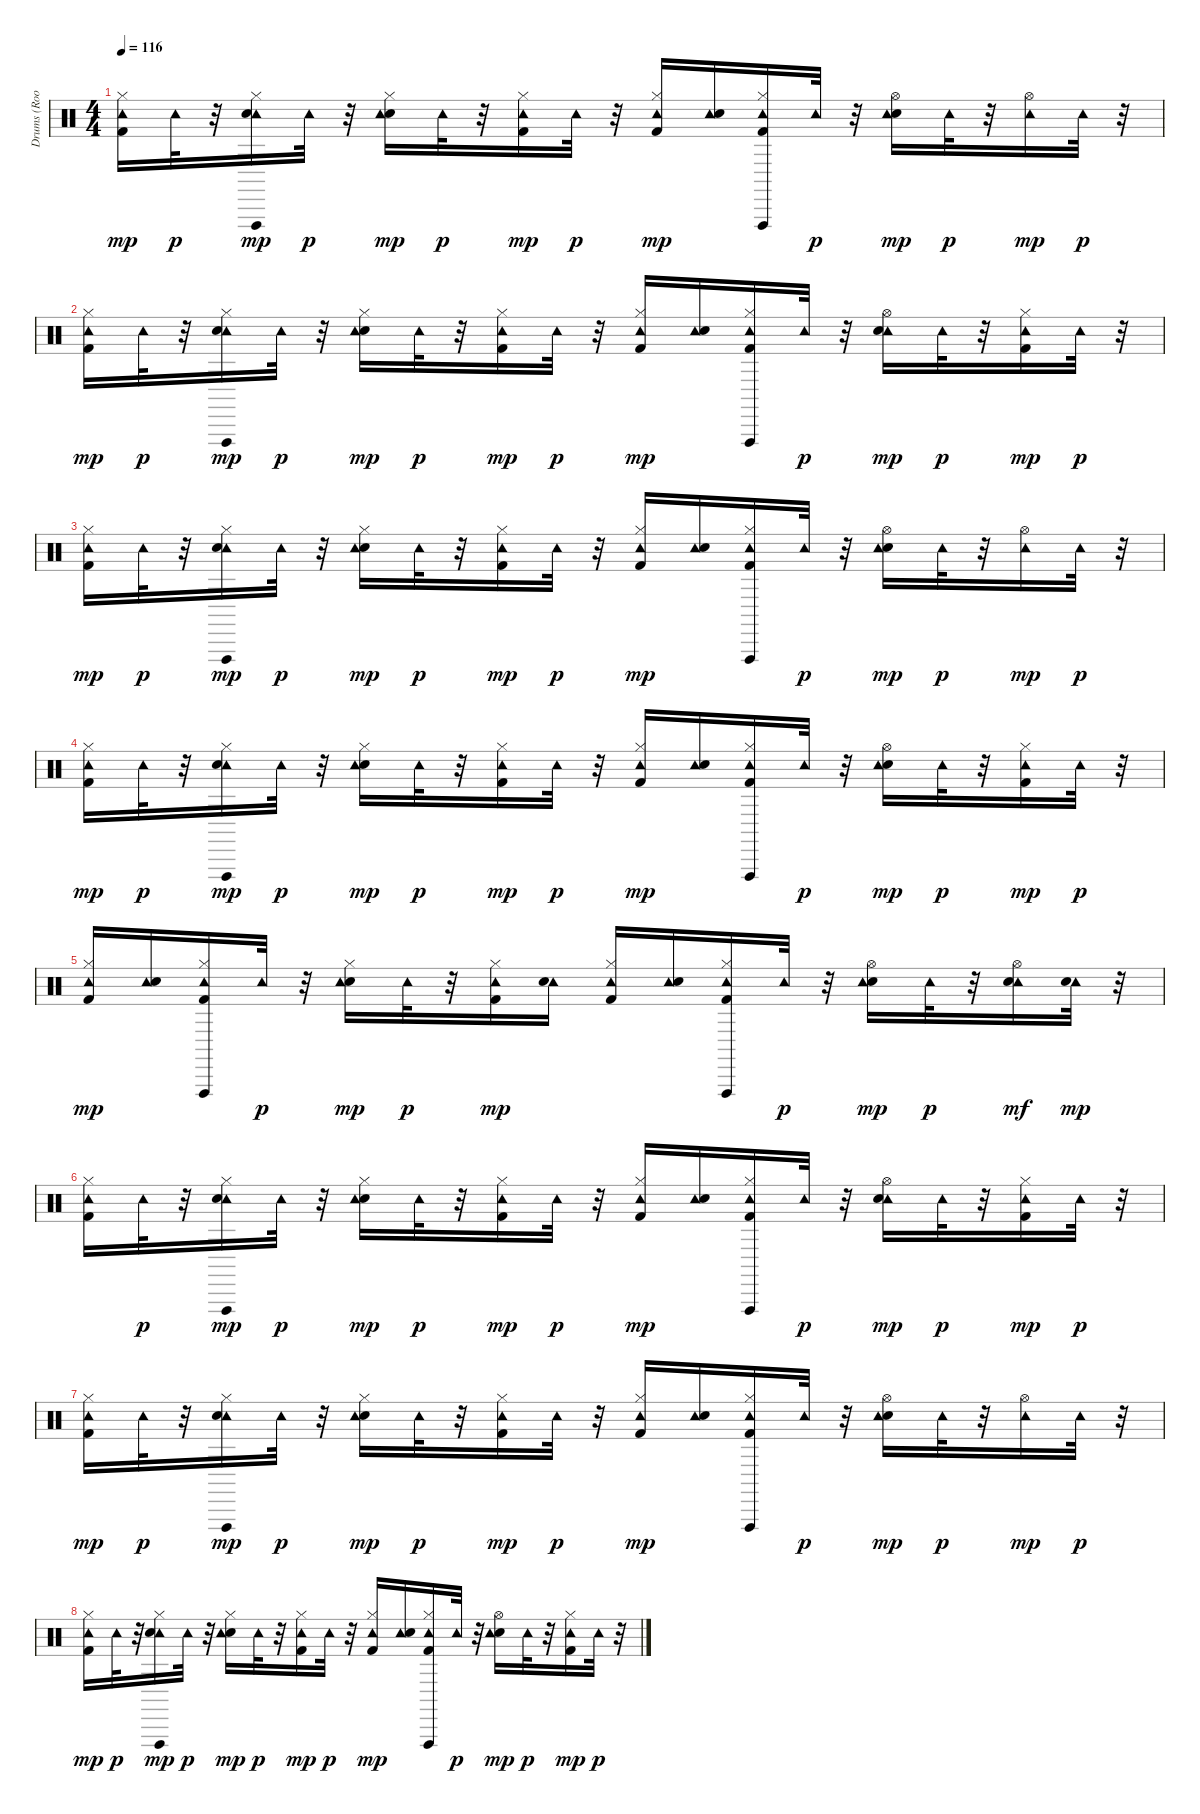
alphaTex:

\track ("Drums (Room Kit)    " "Drums (Roo") {instrument percussion}
\staff {score}
\articulation defaults
\ts (4 4)
\tempo 116
\clef neutral
\ks c
("Hi-Hat (closed)" "Kick (hit) 2" "Tambourine (hit)").16{dy mp} "Tambourine (hit)".32{dy p} r.32 ("Hi-Hat (closed)" "Tambourine (hit)" "Vibraslap (hit)" "Snare (hit) 2").16{dy mp} "Tambourine (hit)".32{dy p} r.32 ("Snare (hit) 2" "Tambourine (hit)" "Hi-Hat (closed)").16{dy mp} "Tambourine (hit)".32{dy p} r.32 ("Kick (hit) 2" "Tambourine (hit)" "Hi-Hat (closed)").16{dy mp} "Tambourine (hit)".32{dy p} r.32 ("Hi-Hat (closed)" "Tambourine (hit)" "Kick (hit) 2").16{dy mp} ("Tambourine (hit)" "Snare (hit) 2").16 ("Kick (hit) 2" "Tambourine (hit)" "Vibraslap (hit)" "Hi-Hat (closed)").16 "Tambourine (hit)".32{dy p} r.32 ("Snare (hit) 2" "Tambourine (hit)" "Hi-Hat (open)").16{dy mp} "Tambourine (hit)".32{dy p} r.32 ("Tambourine (hit)" "Hi-Hat (open)").16{dy mp} "Tambourine (hit)".32{dy p} r.32 |
("Kick (hit) 2" "Hi-Hat (closed)" "Tambourine (hit)").16{dy mp} "Tambourine (hit)".32{dy p} r.32 ("Hi-Hat (closed)" "Tambourine (hit)" "Vibraslap (hit)" "Snare (hit) 2").16{dy mp} "Tambourine (hit)".32{dy p} r.32 ("Snare (hit) 2" "Hi-Hat (closed)" "Tambourine (hit)").16{dy mp} "Tambourine (hit)".32{dy p} r.32 ("Kick (hit) 2" "Tambourine (hit)" "Hi-Hat (closed)").16{dy mp} "Tambourine (hit)".32{dy p} r.32 ("Hi-Hat (closed)" "Tambourine (hit)" "Kick (hit) 2").16{dy mp} ("Tambourine (hit)" "Snare (hit) 2").16 ("Tambourine (hit)" "Vibraslap (hit)" "Hi-Hat (closed)" "Kick (hit) 2").16 "Tambourine (hit)".32{dy p} r.32 ("Tambourine (hit)" "Hi-Hat (open)" "Snare (hit) 2").16{dy mp} "Tambourine (hit)".32{dy p} r.32 ("Hi-Hat (closed)" "Tambourine (hit)" "Kick (hit) 2").16{dy mp} "Tambourine (hit)".32{dy p} r.32 |
("Hi-Hat (closed)" "Kick (hit) 2" "Tambourine (hit)").16{dy mp} "Tambourine (hit)".32{dy p} r.32 ("Hi-Hat (closed)" "Tambourine (hit)" "Vibraslap (hit)" "Snare (hit) 2").16{dy mp} "Tambourine (hit)".32{dy p} r.32 ("Hi-Hat (closed)" "Snare (hit) 2" "Tambourine (hit)").16{dy mp} "Tambourine (hit)".32{dy p} r.32 ("Kick (hit) 2" "Tambourine (hit)" "Hi-Hat (closed)").16{dy mp} "Tambourine (hit)".32{dy p} r.32 ("Hi-Hat (closed)" "Tambourine (hit)" "Kick (hit) 2").16{dy mp} ("Tambourine (hit)" "Snare (hit) 2").16 ("Kick (hit) 2" "Tambourine (hit)" "Vibraslap (hit)" "Hi-Hat (closed)").16 "Tambourine (hit)".32{dy p} r.32 ("Snare (hit) 2" "Tambourine (hit)" "Hi-Hat (open)").16{dy mp} "Tambourine (hit)".32{dy p} r.32 ("Tambourine (hit)" "Hi-Hat (open)").16{dy mp} "Tambourine (hit)".32{dy p} r.32 |
("Kick (hit) 2" "Hi-Hat (closed)" "Tambourine (hit)").16{dy mp} "Tambourine (hit)".32{dy p} r.32 ("Hi-Hat (closed)" "Tambourine (hit)" "Vibraslap (hit)" "Snare (hit) 2").16{dy mp} "Tambourine (hit)".32{dy p} r.32 ("Snare (hit) 2" "Hi-Hat (closed)" "Tambourine (hit)").16{dy mp} "Tambourine (hit)".32{dy p} r.32 ("Kick (hit) 2" "Tambourine (hit)" "Hi-Hat (closed)").16{dy mp} "Tambourine (hit)".32{dy p} r.32 ("Hi-Hat (closed)" "Tambourine (hit)" "Kick (hit) 2").16{dy mp} ("Tambourine (hit)" "Snare (hit) 2").16 ("Kick (hit) 2" "Tambourine (hit)" "Vibraslap (hit)" "Hi-Hat (closed)").16 "Tambourine (hit)".32{dy p} r.32 ("Snare (hit) 2" "Tambourine (hit)" "Hi-Hat (open)").16{dy mp} "Tambourine (hit)".32{dy p} r.32 ("Hi-Hat (closed)" "Tambourine (hit)" "Kick (hit) 2").16{dy mp} "Tambourine (hit)".32{dy p} r.32 |
("Hi-Hat (closed)" "Kick (hit) 2" "Tambourine (hit)").16{dy mp} ("Tambourine (hit)" "Snare (hit) 2").16 ("Hi-Hat (closed)" "Tambourine (hit)" "Vibraslap (hit)" "Kick (hit) 2").16 "Tambourine (hit)".32{dy p} r.32 ("Snare (hit) 2" "Tambourine (hit)" "Hi-Hat (closed)").16{dy mp} "Tambourine (hit)".32{dy p} r.32 ("Kick (hit) 2" "Tambourine (hit)" "Hi-Hat (closed)").16{dy mp} ("Tambourine (hit)" "Snare (hit) 2").16 ("Hi-Hat (closed)" "Tambourine (hit)" "Kick (hit) 2").16 ("Tambourine (hit)" "Snare (hit) 2").16 ("Kick (hit) 2" "Tambourine (hit)" "Vibraslap (hit)" "Hi-Hat (closed)").16 "Tambourine (hit)".32{dy p} r.32 ("Snare (hit) 2" "Tambourine (hit)" "Hi-Hat (open)").16{dy mp} "Tambourine (hit)".32{dy p} r.32 ("Tambourine (hit)" "Hi-Hat (open)" "Snare (hit) 2").16{dy mf} ("Tambourine (hit)" "Snare (hit) 2").32{dy mp} r.32 |
("Kick (hit) 2" "Hi-Hat (closed)" "Tambourine (hit)").16 "Tambourine (hit)".32{dy p} r.32 ("Hi-Hat (closed)" "Tambourine (hit)" "Vibraslap (hit)" "Snare (hit) 2").16{dy mp} "Tambourine (hit)".32{dy p} r.32 ("Snare (hit) 2" "Hi-Hat (closed)" "Tambourine (hit)").16{dy mp} "Tambourine (hit)".32{dy p} r.32 ("Kick (hit) 2" "Tambourine (hit)" "Hi-Hat (closed)").16{dy mp} "Tambourine (hit)".32{dy p} r.32 ("Hi-Hat (closed)" "Tambourine (hit)" "Kick (hit) 2").16{dy mp} ("Tambourine (hit)" "Snare (hit) 2").16 ("Tambourine (hit)" "Vibraslap (hit)" "Hi-Hat (closed)" "Kick (hit) 2").16 "Tambourine (hit)".32{dy p} r.32 ("Tambourine (hit)" "Hi-Hat (open)" "Snare (hit) 2").16{dy mp} "Tambourine (hit)".32{dy p} r.32 ("Hi-Hat (closed)" "Tambourine (hit)" "Kick (hit) 2").16{dy mp} "Tambourine (hit)".32{dy p} r.32 |
("Hi-Hat (closed)" "Kick (hit) 2" "Tambourine (hit)").16{dy mp} "Tambourine (hit)".32{dy p} r.32 ("Hi-Hat (closed)" "Tambourine (hit)" "Vibraslap (hit)" "Snare (hit) 2").16{dy mp} "Tambourine (hit)".32{dy p} r.32 ("Hi-Hat (closed)" "Snare (hit) 2" "Tambourine (hit)").16{dy mp} "Tambourine (hit)".32{dy p} r.32 ("Kick (hit) 2" "Tambourine (hit)" "Hi-Hat (closed)").16{dy mp} "Tambourine (hit)".32{dy p} r.32 ("Hi-Hat (closed)" "Tambourine (hit)" "Kick (hit) 2").16{dy mp} ("Tambourine (hit)" "Snare (hit) 2").16 ("Kick (hit) 2" "Tambourine (hit)" "Vibraslap (hit)" "Hi-Hat (closed)").16 "Tambourine (hit)".32{dy p} r.32 ("Snare (hit) 2" "Tambourine (hit)" "Hi-Hat (open)").16{dy mp} "Tambourine (hit)".32{dy p} r.32 ("Tambourine (hit)" "Hi-Hat (open)").16{dy mp} "Tambourine (hit)".32{dy p} r.32 |
("Kick (hit) 2" "Hi-Hat (closed)" "Tambourine (hit)").16{dy mp} "Tambourine (hit)".32{dy p} r.32 ("Hi-Hat (closed)" "Tambourine (hit)" "Vibraslap (hit)" "Snare (hit) 2").16{dy mp} "Tambourine (hit)".32{dy p} r.32 ("Snare (hit) 2" "Hi-Hat (closed)" "Tambourine (hit)").16{dy mp} "Tambourine (hit)".32{dy p} r.32 ("Kick (hit) 2" "Tambourine (hit)" "Hi-Hat (closed)").16{dy mp} "Tambourine (hit)".32{dy p} r.32 ("Hi-Hat (closed)" "Tambourine (hit)" "Kick (hit) 2").16{dy mp} ("Tambourine (hit)" "Snare (hit) 2").16 ("Kick (hit) 2" "Tambourine (hit)" "Vibraslap (hit)" "Hi-Hat (closed)").16 "Tambourine (hit)".32{dy p} r.32 ("Snare (hit) 2" "Tambourine (hit)" "Hi-Hat (open)").16{dy mp} "Tambourine (hit)".32{dy p} r.32 ("Hi-Hat (closed)" "Tambourine (hit)" "Kick (hit) 2").16{dy mp} "Tambourine (hit)".32{dy p} r.32
